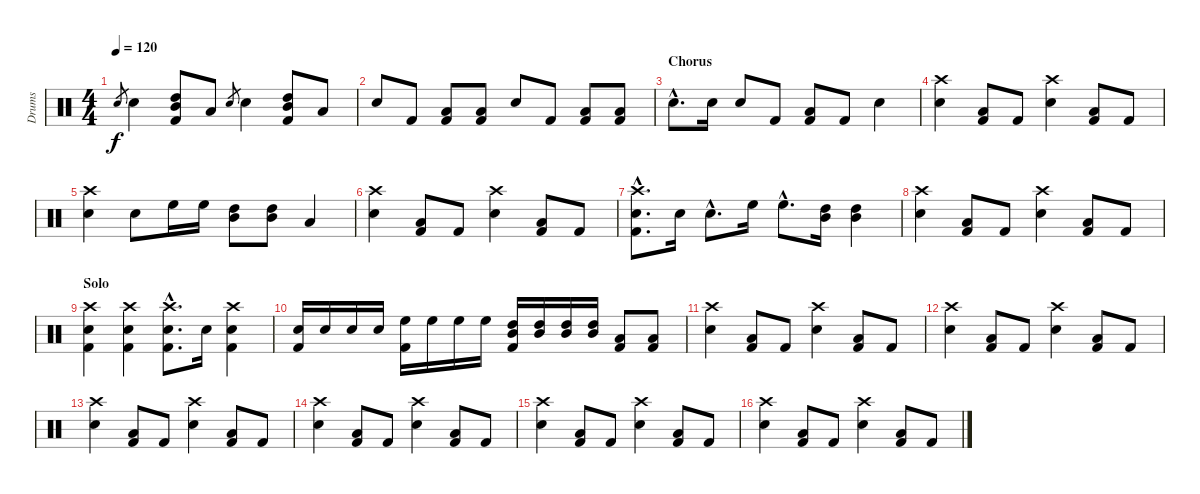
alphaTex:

\track ("Drums" "Drums") {instrument percussion}
\staff {score}
\articulation defaults
\ts (4 4)
\tempo 120
\clef neutral
\ks c "Snare (hit) 2".8{gr dy f} "Snare (hit) 2".4
("High Tom (hit)" "Mid Tom (hit)" "Kick (hit) 2").8 "Low Tom (hit)".8 "Snare (hit) 2".8{gr} "Snare (hit) 2".4 ("High Tom (hit)" "Mid Tom (hit)" "Kick (hit) 2").8 "Low Tom (hit)".8 |
"Snare (hit) 2".8 "Kick (hit) 2".8 ("Low Tom (hit)" "Kick (hit) 2").8 ("Low Tom (hit)" "Kick (hit) 2").8 "Snare (hit) 2".8 "Kick (hit) 2".8 ("Low Tom (hit)" "Kick (hit) 2").8 ("Low Tom (hit)" "Kick (hit) 2").8 |
\section ("" "Chorus")
"Snare (hit) 2"{hac}.8{d} "Snare (hit) 2".16 "Snare (hit) 2".8 "Kick (hit) 2".8 ("Low Tom (hit)" "Kick (hit) 2").8 "Kick (hit) 2".8 "Snare (hit) 2".4 |
("Crash high (hit)" "Snare (hit) 2").4 ("Low Tom (hit)" "Kick (hit) 2").8 "Kick (hit) 2".8 ("Crash high (hit)" "Snare (hit) 2").4 ("Low Tom (hit)" "Kick (hit) 2").8 "Kick (hit) 2".8 |
("Crash high (hit)" "Snare (hit) 2").4 "Snare (hit) 2".8 "High Floor Tom (hit)".16 "High Floor Tom (hit)".16 ("High Tom (hit)" "Mid Tom (hit)").8 ("High Tom (hit)" "Mid Tom (hit)").8 "Low Tom (hit)".4 |
("Crash high (hit)" "Snare (hit) 2").4 ("Low Tom (hit)" "Kick (hit) 2").8 "Kick (hit) 2".8 ("Crash high (hit)" "Snare (hit) 2").4 ("Low Tom (hit)" "Kick (hit) 2").8 "Kick (hit) 2".8 |
("Crash high (hit)"{hac} "Snare (hit) 2"{hac} "Kick (hit) 2"{hac}).8{d} "Snare (hit) 2".16 "Snare (hit) 2"{hac}.8{d} "High Floor Tom (hit)".16 "High Floor Tom (hit)"{hac}.8{d} ("High Tom (hit)" "Mid Tom (hit)").16 ("High Tom (hit)" "Mid Tom (hit)").4 |
("Crash high (hit)" "Snare (hit) 2").4 ("Low Tom (hit)" "Kick (hit) 2").8 "Kick (hit) 2".8 ("Crash high (hit)" "Snare (hit) 2").4 ("Low Tom (hit)" "Kick (hit) 2").8 "Kick (hit) 2".8 |
\section ("" "Solo")
("Crash high (hit)" "Snare (hit) 2" "Kick (hit) 2").4 ("Crash high (hit)" "Snare (hit) 2" "Kick (hit) 2").4 ("Crash high (hit)"{hac} "Snare (hit) 2"{hac} "Kick (hit) 2"{hac}).8{d} "Snare (hit) 2".16 ("Crash high (hit)" "Snare (hit) 2" "Kick (hit) 2").4 |
("Snare (hit) 2" "Kick (hit) 2").16 "Snare (hit) 2".16 "Snare (hit) 2".16 "Snare (hit) 2".16 ("High Floor Tom (hit)" "Kick (hit) 2").16 "High Floor Tom (hit)".16 "High Floor Tom (hit)".16 "High Floor Tom (hit)".16 ("High Tom (hit)" "Mid Tom (hit)" "Kick (hit) 2").16 ("High Tom (hit)" "Mid Tom (hit)").16 ("High Tom (hit)" "Mid Tom (hit)").16 ("High Tom (hit)" "Mid Tom (hit)").16 ("Low Tom (hit)" "Kick (hit) 2").8 ("Low Tom (hit)" "Kick (hit) 2").8 |
("Crash high (hit)" "Snare (hit) 2").4 ("Low Tom (hit)" "Kick (hit) 2").8 "Kick (hit) 2".8 ("Crash high (hit)" "Snare (hit) 2").4 ("Low Tom (hit)" "Kick (hit) 2").8 "Kick (hit) 2".8 |
("Crash high (hit)" "Snare (hit) 2").4 ("Low Tom (hit)" "Kick (hit) 2").8 "Kick (hit) 2".8 ("Crash high (hit)" "Snare (hit) 2").4 ("Low Tom (hit)" "Kick (hit) 2").8 "Kick (hit) 2".8 |
("Crash high (hit)" "Snare (hit) 2").4 ("Low Tom (hit)" "Kick (hit) 2").8 "Kick (hit) 2".8 ("Crash high (hit)" "Snare (hit) 2").4 ("Low Tom (hit)" "Kick (hit) 2").8 "Kick (hit) 2".8 |
("Crash high (hit)" "Snare (hit) 2").4 ("Low Tom (hit)" "Kick (hit) 2").8 "Kick (hit) 2".8 ("Crash high (hit)" "Snare (hit) 2").4 ("Low Tom (hit)" "Kick (hit) 2").8 "Kick (hit) 2".8 |
("Crash high (hit)" "Snare (hit) 2").4 ("Low Tom (hit)" "Kick (hit) 2").8 "Kick (hit) 2".8 ("Crash high (hit)" "Snare (hit) 2").4 ("Low Tom (hit)" "Kick (hit) 2").8 "Kick (hit) 2".8 |
("Crash high (hit)" "Snare (hit) 2").4 ("Low Tom (hit)" "Kick (hit) 2").8 "Kick (hit) 2".8 ("Crash high (hit)" "Snare (hit) 2").4 ("Low Tom (hit)" "Kick (hit) 2").8 "Kick (hit) 2".8
